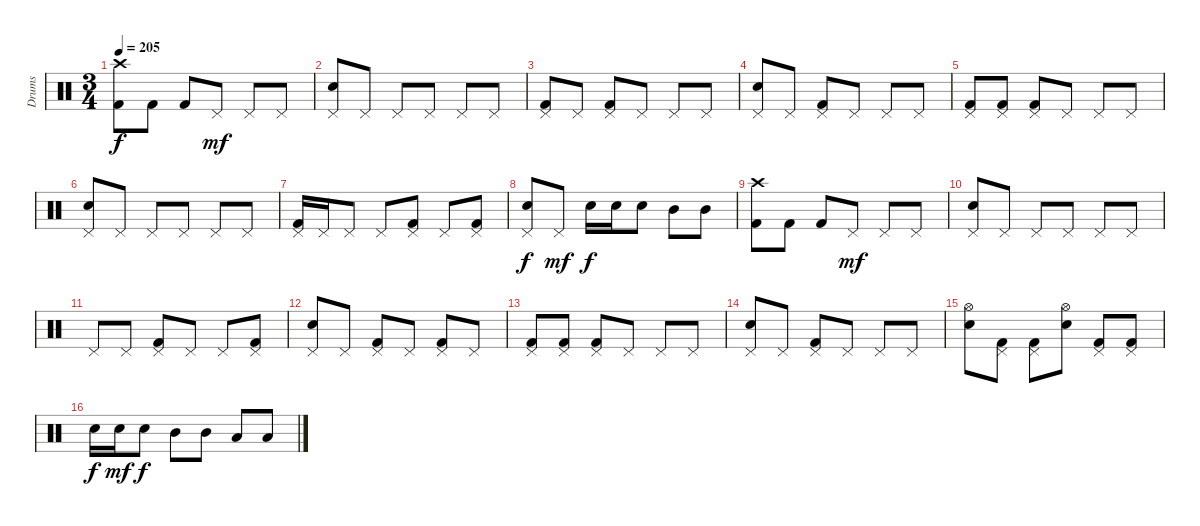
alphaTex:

\track ("Drums" "Drums") {instrument percussion}
\staff {score}
\articulation defaults
\ts (3 4)
\tempo 205
\clef neutral
\ks c
("Crash high (hit)" "Kick (hit) 2").8{dy f} "Kick (hit) 2".8 "Kick (hit) 2".8 "Pedal Hi-Hat (hit)".8{dy mf} "Pedal Hi-Hat (hit)".8 "Pedal Hi-Hat (hit)".8 |
("Pedal Hi-Hat (hit)" "Snare (hit) 2").8 "Pedal Hi-Hat (hit)".8 "Pedal Hi-Hat (hit)".8 "Pedal Hi-Hat (hit)".8 "Pedal Hi-Hat (hit)".8 "Pedal Hi-Hat (hit)".8 |
("Pedal Hi-Hat (hit)" "Kick (hit) 2").8 "Pedal Hi-Hat (hit)".8 ("Pedal Hi-Hat (hit)" "Kick (hit) 2").8 "Pedal Hi-Hat (hit)".8 "Pedal Hi-Hat (hit)".8 "Pedal Hi-Hat (hit)".8 |
("Pedal Hi-Hat (hit)" "Snare (hit) 2").8 "Pedal Hi-Hat (hit)".8 ("Pedal Hi-Hat (hit)" "Kick (hit) 2").8 "Pedal Hi-Hat (hit)".8 "Pedal Hi-Hat (hit)".8 "Pedal Hi-Hat (hit)".8 |
("Pedal Hi-Hat (hit)" "Kick (hit) 2").8 ("Pedal Hi-Hat (hit)" "Kick (hit) 2").8 ("Pedal Hi-Hat (hit)" "Kick (hit) 2").8 "Pedal Hi-Hat (hit)".8 "Pedal Hi-Hat (hit)".8 "Pedal Hi-Hat (hit)".8 |
("Pedal Hi-Hat (hit)" "Snare (hit) 2").8 "Pedal Hi-Hat (hit)".8 "Pedal Hi-Hat (hit)".8 "Pedal Hi-Hat (hit)".8 "Pedal Hi-Hat (hit)".8 "Pedal Hi-Hat (hit)".8 |
("Pedal Hi-Hat (hit)" "Kick (hit) 2").16 "Pedal Hi-Hat (hit)".16 "Pedal Hi-Hat (hit)".8 "Pedal Hi-Hat (hit)".8 ("Pedal Hi-Hat (hit)" "Kick (hit) 2").8 "Pedal Hi-Hat (hit)".8 ("Pedal Hi-Hat (hit)" "Kick (hit) 2").8 |
("Pedal Hi-Hat (hit)" "Snare (hit) 2").8{dy f} "Pedal Hi-Hat (hit)".8{dy mf} "Snare (hit) 2".16{dy f} "Snare (hit) 2".16 "Snare (hit) 2".8 "Mid Tom (hit)".8 "Mid Tom (hit)".8 |
("Crash high (hit)" "Kick (hit) 2").8 "Kick (hit) 2".8 "Kick (hit) 2".8 "Pedal Hi-Hat (hit)".8{dy mf} "Pedal Hi-Hat (hit)".8 "Pedal Hi-Hat (hit)".8 |
("Pedal Hi-Hat (hit)" "Snare (hit) 2").8 "Pedal Hi-Hat (hit)".8 "Pedal Hi-Hat (hit)".8 "Pedal Hi-Hat (hit)".8 "Pedal Hi-Hat (hit)".8 "Pedal Hi-Hat (hit)".8 |
"Pedal Hi-Hat (hit)".8 "Pedal Hi-Hat (hit)".8 ("Pedal Hi-Hat (hit)" "Kick (hit) 2").8 "Pedal Hi-Hat (hit)".8 "Pedal Hi-Hat (hit)".8 ("Pedal Hi-Hat (hit)" "Kick (hit) 2").8 |
("Pedal Hi-Hat (hit)" "Snare (hit) 2").8 "Pedal Hi-Hat (hit)".8 ("Pedal Hi-Hat (hit)" "Kick (hit) 2").8 "Pedal Hi-Hat (hit)".8 ("Pedal Hi-Hat (hit)" "Kick (hit) 2").8 "Pedal Hi-Hat (hit)".8 |
("Pedal Hi-Hat (hit)" "Kick (hit) 2").8 ("Pedal Hi-Hat (hit)" "Kick (hit) 2").8 ("Pedal Hi-Hat (hit)" "Kick (hit) 2").8 "Pedal Hi-Hat (hit)".8 "Pedal Hi-Hat (hit)".8 "Pedal Hi-Hat (hit)".8 |
("Pedal Hi-Hat (hit)" "Snare (hit) 2").8 "Pedal Hi-Hat (hit)".8 ("Pedal Hi-Hat (hit)" "Kick (hit) 2").8 "Pedal Hi-Hat (hit)".8 "Pedal Hi-Hat (hit)".8 "Pedal Hi-Hat (hit)".8 |
("Hi-Hat (open)" "Snare (hit) 2").8 ("Pedal Hi-Hat (hit)" "Kick (hit) 2").8 ("Pedal Hi-Hat (hit)" "Kick (hit) 2").8 ("Hi-Hat (open)" "Snare (hit) 2").8 ("Pedal Hi-Hat (hit)" "Kick (hit) 2").8 ("Pedal Hi-Hat (hit)" "Kick (hit) 2").8 |
"Snare (hit) 2".16{dy f} "Snare (hit) 2".16{dy mf} "Snare (hit) 2".8{dy f} "Mid Tom (hit)".8 "Mid Tom (hit)".8 "Low Tom (hit)".8 "Low Tom (hit)".8
